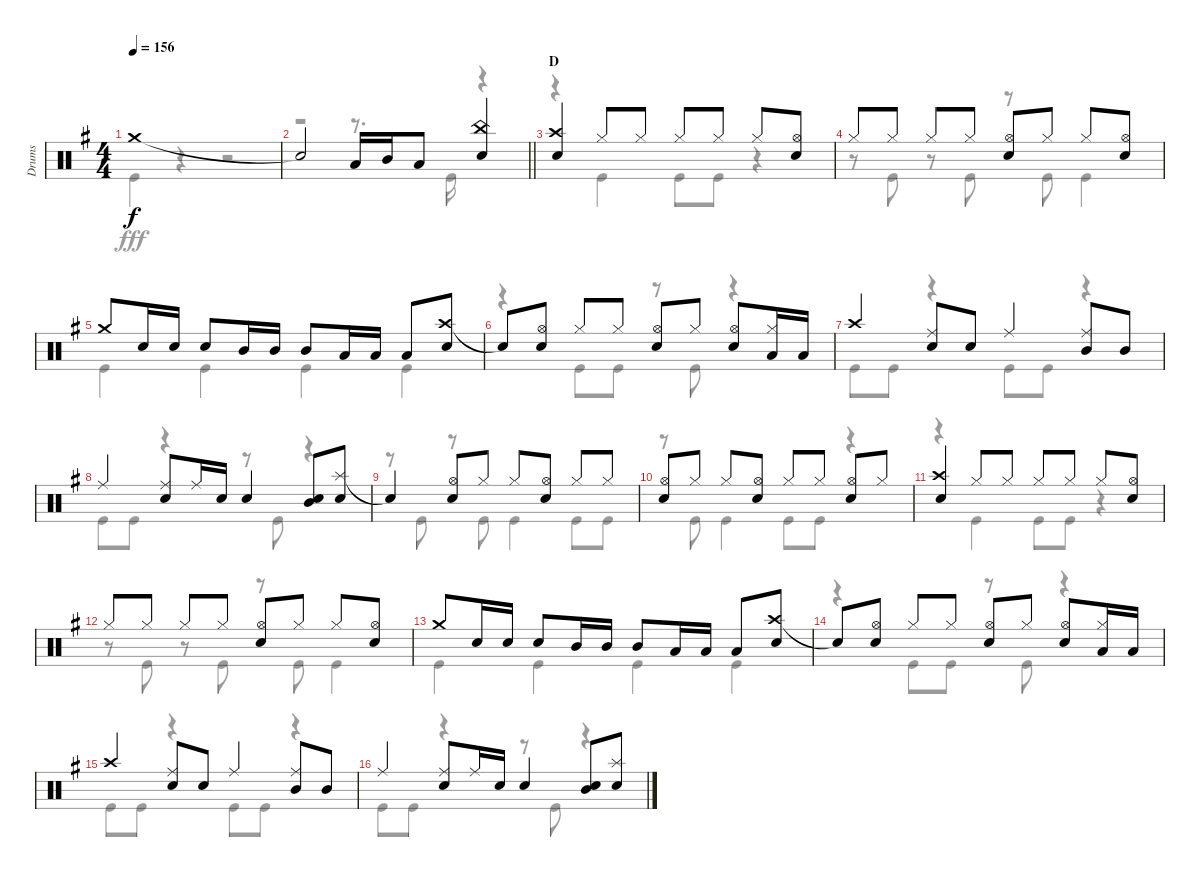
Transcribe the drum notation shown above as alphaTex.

\track ("Drums" "Drums") {instrument percussion}
\staff {score}
\articulation defaults
\voice
\ts (4 4)
\tempo 156
\clef neutral
\ks g "Crash medium (hit)".1{dy f}
|
\barLineRight lightlight "Snare (hit)"{t}.2 "Low Tom (hit)".16 "Mid Tom (hit)".16 "Low Tom (hit)".8
("China (hit)" "Snare (hit) 2").4 |
\section ("" "D")
("Crash high (hit)" "Snare (hit) 2").4 "Hi-Hat (closed)".8 "Hi-Hat (closed)".8 "Hi-Hat (closed)".8 "Hi-Hat (closed)".8 "Hi-Hat (closed)".8 ("Hi-Hat (open)" "Snare (hit) 2").8 |
"Hi-Hat (closed)".8 "Hi-Hat (closed)".8 "Hi-Hat (closed)".8 "Hi-Hat (closed)".8 ("Hi-Hat (open)" "Snare (hit) 2").8 "Hi-Hat (closed)".8 "Hi-Hat (closed)".8 ("Hi-Hat (open)" "Snare (hit) 2").8 |
"Crash medium (hit)".8 "Snare (hit) 2".16 "Snare (hit) 2".16 "Snare (hit) 2".8 "Mid Tom (hit)".16 "Mid Tom (hit)".16 "Mid Tom (hit)".8 "Low Tom (hit)".16 "Low Tom (hit)".16 "Low Tom (hit)".8 ("Crash high (hit)" "Snare (hit) 2").8 |
"Snare (hit)"{t}.8 ("Hi-Hat (open)" "Snare (hit) 2").8 "Hi-Hat (closed)".8 "Hi-Hat (closed)".8 ("Hi-Hat (open)" "Snare (hit) 2").8 "Hi-Hat (closed)".8 ("Hi-Hat (open)" "Snare (hit) 2").8 ("Hi-Hat (closed)" "Low Tom (hit)").16 "Low Tom (hit)".16 |
"Crash high (hit)".4 ("Ride (middle)" "Snare (hit) 2").8 "Snare (hit) 2".8 "Ride (middle)".4 ("Ride (middle)" "Mid Tom (hit)").8 "Mid Tom (hit)".8 |
"Ride (middle)".4 ("Ride (middle)" "Snare (hit) 2").8 "Ride (middle)".16 "Snare (hit) 2".16 "Snare (hit) 2".4 ("Mid Tom (hit)" "Snare (hit) 2").8 ("Splash (hit)" "Snare (hit) 2").8 |
"Snare (hit)"{t}.4 ("Hi-Hat (open)" "Snare (hit) 2").8 "Hi-Hat (closed)".8 "Hi-Hat (closed)".8 ("Hi-Hat (open)" "Snare (hit) 2").8 "Hi-Hat (closed)".8 "Hi-Hat (closed)".8 |
("Hi-Hat (open)" "Snare (hit) 2").8 "Hi-Hat (closed)".8 "Hi-Hat (closed)".8 ("Hi-Hat (open)" "Snare (hit) 2").8 "Hi-Hat (closed)".8 "Hi-Hat (closed)".8 ("Hi-Hat (open)" "Snare (hit) 2").8 "Hi-Hat (closed)".8 |
("Crash high (hit)" "Snare (hit) 2").4 "Hi-Hat (closed)".8 "Hi-Hat (closed)".8 "Hi-Hat (closed)".8 "Hi-Hat (closed)".8 "Hi-Hat (closed)".8 ("Hi-Hat (open)" "Snare (hit) 2").8 |
"Hi-Hat (closed)".8 "Hi-Hat (closed)".8 "Hi-Hat (closed)".8 "Hi-Hat (closed)".8 ("Hi-Hat (open)" "Snare (hit) 2").8 "Hi-Hat (closed)".8 "Hi-Hat (closed)".8 ("Hi-Hat (open)" "Snare (hit) 2").8 |
"Crash medium (hit)".8 "Snare (hit) 2".16 "Snare (hit) 2".16 "Snare (hit) 2".8 "Mid Tom (hit)".16 "Mid Tom (hit)".16 "Mid Tom (hit)".8 "Low Tom (hit)".16 "Low Tom (hit)".16 "Low Tom (hit)".8 ("Crash high (hit)" "Snare (hit) 2").8 |
"Snare (hit)"{t}.8 ("Hi-Hat (open)" "Snare (hit) 2").8 "Hi-Hat (closed)".8 "Hi-Hat (closed)".8 ("Hi-Hat (open)" "Snare (hit) 2").8 "Hi-Hat (closed)".8 ("Hi-Hat (open)" "Snare (hit) 2").8 ("Hi-Hat (closed)" "Low Tom (hit)").16 "Low Tom (hit)".16 |
"Crash high (hit)".4 ("Ride (middle)" "Snare (hit) 2").8 "Snare (hit) 2".8 "Ride (middle)".4 ("Ride (middle)" "Mid Tom (hit)").8 "Mid Tom (hit)".8 |
"Ride (middle)".4 ("Ride (middle)" "Snare (hit) 2").8 "Ride (middle)".16 "Snare (hit) 2".16 "Snare (hit) 2".4 ("Mid Tom (hit)" "Snare (hit) 2").8 ("Splash (hit)" "Snare (hit) 2").8
\voice
\clef neutral
\ottava regular
\simile none
\ks g "Kick (hit)".4{dy fff}
r.4 r.2 |
\barLineRight lightlight
r.2 r.8{d} "Kick (hit)".16 r.4 |
r.4 "Kick (hit)".4 "Kick (hit)".8 "Kick (hit)".8 r.4 |
r.8 "Kick (hit)".8 r.8 "Kick (hit)".8 r.8 "Kick (hit)".8 "Kick (hit)".4 |
"Kick (hit)".4 "Kick (hit)".4 "Kick (hit)".4 "Kick (hit)".4 |
r.4 "Kick (hit)".8 "Kick (hit)".8 r.8 "Kick (hit)".8 r.4 |
"Kick (hit)".8 "Kick (hit)".8 r.4 "Kick (hit)".8 "Kick (hit)".8 r.4 |
"Kick (hit)".8 "Kick (hit)".8 r.4 r.8 "Kick (hit)".8 r.4 |
r.8 "Kick (hit)".8 r.8 "Kick (hit)".8 "Kick (hit)".4 "Kick (hit)".8 "Kick (hit)".8 |
r.8 "Kick (hit)".8 "Kick (hit)".4 "Kick (hit)".8 "Kick (hit)".8 r.4 |
r.4 "Kick (hit)".4 "Kick (hit)".8 "Kick (hit)".8 r.4 |
r.8 "Kick (hit)".8 r.8 "Kick (hit)".8 r.8 "Kick (hit)".8 "Kick (hit)".4 |
"Kick (hit)".4 "Kick (hit)".4 "Kick (hit)".4 "Kick (hit)".4 |
r.4 "Kick (hit)".8 "Kick (hit)".8 r.8 "Kick (hit)".8 r.4 |
"Kick (hit)".8 "Kick (hit)".8 r.4 "Kick (hit)".8 "Kick (hit)".8 r.4 |
"Kick (hit)".8 "Kick (hit)".8 r.4 r.8 "Kick (hit)".8 r.4
